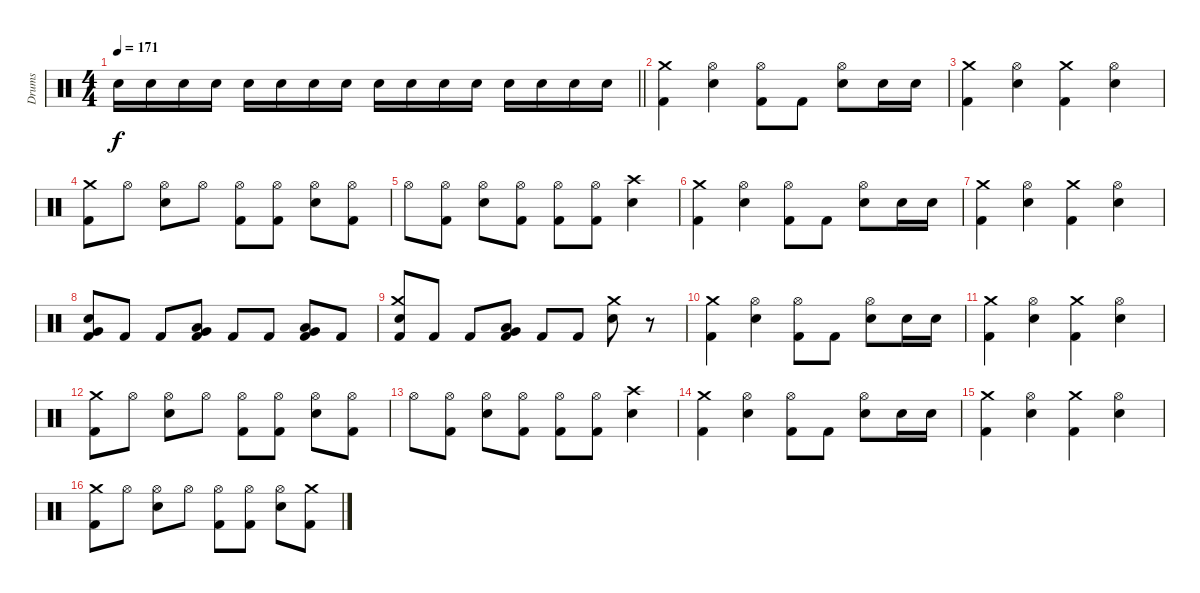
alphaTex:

\track ("Drums" "Drums") {instrument percussion}
\staff {score}
\articulation defaults
\ts (4 4)
\tempo 171
\clef neutral
\barLineRight lightlight
\ks c "Electric Snare (hit)".16{dy f} "Electric Snare (hit)".16 "Electric Snare (hit)".16 "Electric Snare (hit)".16 "Electric Snare (hit)".16 "Electric Snare (hit)".16 "Electric Snare (hit)".16 "Electric Snare (hit)".16 "Electric Snare (hit)".16 "Electric Snare (hit)".16 "Electric Snare (hit)".16 "Electric Snare (hit)".16 "Electric Snare (hit)".16 "Electric Snare (hit)".16 "Electric Snare (hit)".16 "Electric Snare (hit)".16
|
("Crash medium (hit)" "Kick (hit) 2").4 ("Hi-Hat (open)" "Electric Snare (hit)").4 ("Hi-Hat (open)" "Kick (hit) 2").8 "Kick (hit) 2".8 ("Hi-Hat (open)" "Electric Snare (hit)").8 "Electric Snare (hit)".16 "Electric Snare (hit)".16 |
("Crash medium (hit)" "Kick (hit) 2").4 ("Hi-Hat (open)" "Electric Snare (hit)").4 ("Crash medium (hit)" "Kick (hit) 2").4 ("Hi-Hat (open)" "Electric Snare (hit)").4 |
("Crash medium (hit)" "Kick (hit) 2").8 "Hi-Hat (open)".8 ("Hi-Hat (open)" "Electric Snare (hit)").8 "Hi-Hat (open)".8 ("Hi-Hat (open)" "Kick (hit) 2").8 ("Hi-Hat (open)" "Kick (hit) 2").8 ("Hi-Hat (open)" "Electric Snare (hit)").8 ("Hi-Hat (open)" "Kick (hit) 2").8 |
"Hi-Hat (open)".8 ("Hi-Hat (open)" "Kick (hit) 2").8 ("Hi-Hat (open)" "Electric Snare (hit)").8 ("Hi-Hat (open)" "Kick (hit) 2").8 ("Hi-Hat (open)" "Kick (hit) 2").8 ("Hi-Hat (open)" "Kick (hit) 2").8 ("Crash high (hit)" "Electric Snare (hit)").4 |
("Crash medium (hit)" "Kick (hit) 2").4 ("Hi-Hat (open)" "Electric Snare (hit)").4 ("Hi-Hat (open)" "Kick (hit) 2").8 "Kick (hit) 2".8 ("Hi-Hat (open)" "Electric Snare (hit)").8 "Electric Snare (hit)".16 "Electric Snare (hit)".16 |
("Crash medium (hit)" "Kick (hit) 2").4 ("Hi-Hat (open)" "Electric Snare (hit)").4 ("Crash medium (hit)" "Kick (hit) 2").4 ("Hi-Hat (open)" "Electric Snare (hit)").4 |
("Electric Snare (hit)" "Very Low Tom (hit)" "Kick (hit) 2").8 "Kick (hit) 2".8 "Kick (hit) 2".8 ("Low Tom (hit)" "Very Low Tom (hit)" "Kick (hit) 2").8 "Kick (hit) 2".8 "Kick (hit) 2".8 ("Very Low Tom (hit)" "Low Floor Tom (hit)" "Kick (hit) 2").8 "Kick (hit) 2".8 |
("Crash medium (hit)" "Electric Snare (hit)" "Kick (hit) 2").8 "Kick (hit) 2".8 "Kick (hit) 2".8 ("Low Tom (hit)" "Very Low Tom (hit)" "Kick (hit) 2").8 "Kick (hit) 2".8 "Kick (hit) 2".8 ("Crash medium (hit)" "Electric Snare (hit)").8 r.8 |
("Crash medium (hit)" "Kick (hit) 2").4 ("Hi-Hat (open)" "Electric Snare (hit)").4 ("Hi-Hat (open)" "Kick (hit) 2").8 "Kick (hit) 2".8 ("Hi-Hat (open)" "Electric Snare (hit)").8 "Electric Snare (hit)".16 "Electric Snare (hit)".16 |
("Crash medium (hit)" "Kick (hit) 2").4 ("Hi-Hat (open)" "Electric Snare (hit)").4 ("Crash medium (hit)" "Kick (hit) 2").4 ("Hi-Hat (open)" "Electric Snare (hit)").4 |
("Crash medium (hit)" "Kick (hit) 2").8 "Hi-Hat (open)".8 ("Hi-Hat (open)" "Electric Snare (hit)").8 "Hi-Hat (open)".8 ("Hi-Hat (open)" "Kick (hit) 2").8 ("Hi-Hat (open)" "Kick (hit) 2").8 ("Hi-Hat (open)" "Electric Snare (hit)").8 ("Hi-Hat (open)" "Kick (hit) 2").8 |
"Hi-Hat (open)".8 ("Hi-Hat (open)" "Kick (hit) 2").8 ("Hi-Hat (open)" "Electric Snare (hit)").8 ("Hi-Hat (open)" "Kick (hit) 2").8 ("Hi-Hat (open)" "Kick (hit) 2").8 ("Hi-Hat (open)" "Kick (hit) 2").8 ("Crash high (hit)" "Electric Snare (hit)").4 |
("Crash medium (hit)" "Kick (hit) 2").4 ("Hi-Hat (open)" "Electric Snare (hit)").4 ("Hi-Hat (open)" "Kick (hit) 2").8 "Kick (hit) 2".8 ("Hi-Hat (open)" "Electric Snare (hit)").8 "Electric Snare (hit)".16 "Electric Snare (hit)".16 |
("Crash medium (hit)" "Kick (hit) 2").4 ("Hi-Hat (open)" "Electric Snare (hit)").4 ("Crash medium (hit)" "Kick (hit) 2").4 ("Hi-Hat (open)" "Electric Snare (hit)").4 |
("Crash medium (hit)" "Kick (hit) 2").8 "Hi-Hat (open)".8 ("Hi-Hat (open)" "Electric Snare (hit)").8 "Hi-Hat (open)".8 ("Hi-Hat (open)" "Kick (hit) 2").8 ("Hi-Hat (open)" "Kick (hit) 2").8 ("Hi-Hat (open)" "Electric Snare (hit)").8 ("Crash medium (hit)" "Kick (hit) 2").8
